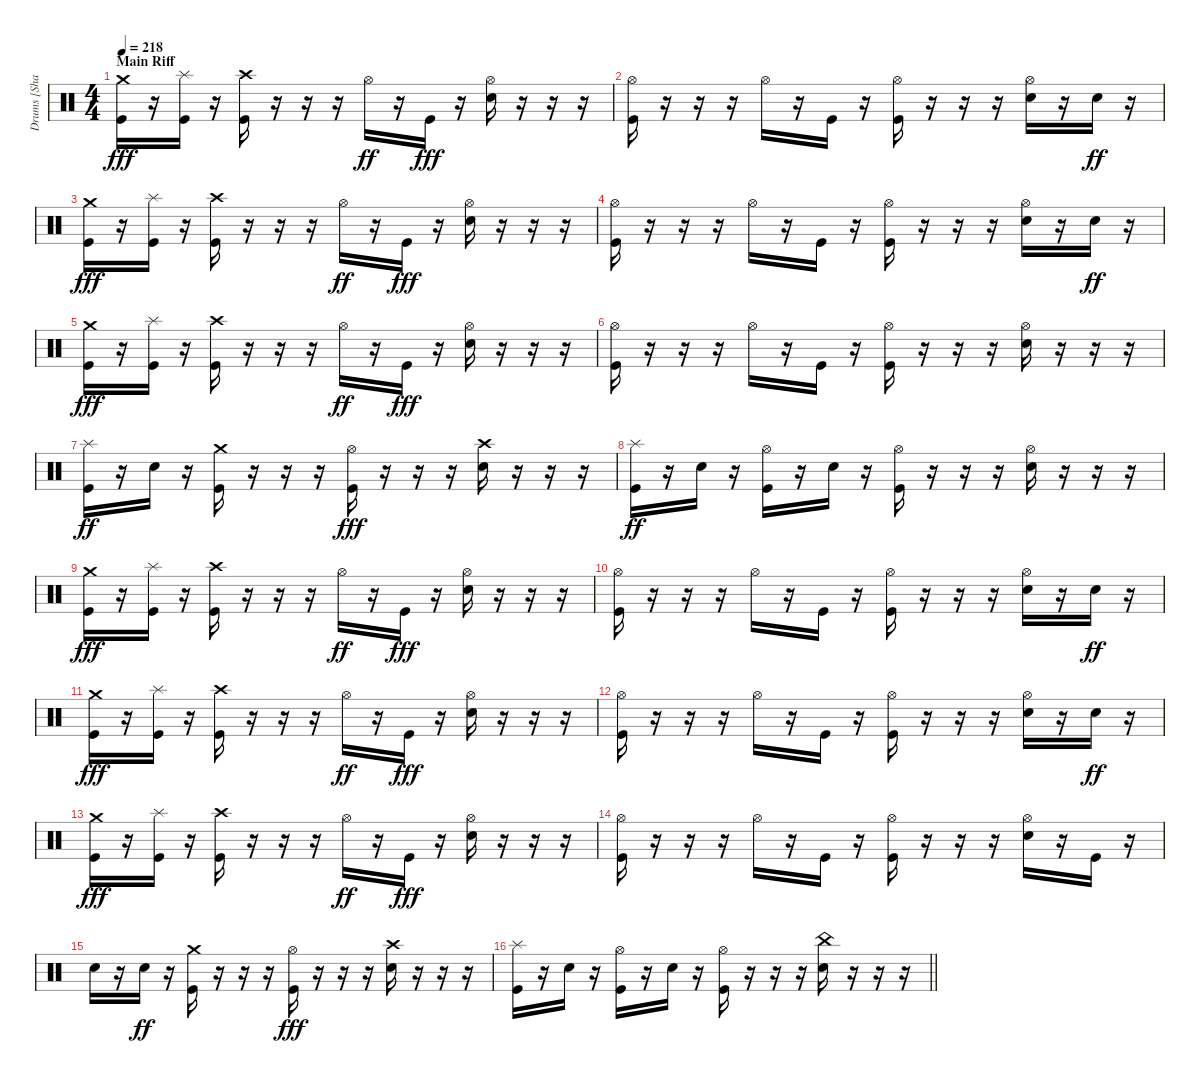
\track ("Drums [Shannon Larkin]" "Drums [Sha") {instrument percussion}
\staff {score}
\articulation defaults
\ts (4 4)
\section ("" "Main Riff")
\tempo 218
\clef neutral
\ks c
("Crash medium (hit)" "Kick (hit)").16{dy fff volume 15} r.16 ("Splash (hit)" "Kick (hit)").16 r.16 ("Crash high (hit)" "Kick (hit)").16 r.16 r.16 r.16 "Hi-Hat (open)".16{dy ff} r.16 "Kick (hit)".16{dy fff} r.16 ("Hi-Hat (open)" "Electric Snare (hit)").16 r.16 r.16 r.16 |
("Hi-Hat (open)" "Kick (hit)").16 r.16 r.16 r.16 "Hi-Hat (open)".16 r.16 "Kick (hit)".16 r.16 ("Hi-Hat (open)" "Kick (hit)").16 r.16 r.16 r.16 ("Hi-Hat (open)" "Electric Snare (hit)").16 r.16 "Electric Snare (hit)".16{dy ff} r.16 |
("Crash medium (hit)" "Kick (hit)").16{dy fff} r.16 ("Splash (hit)" "Kick (hit)").16 r.16 ("Crash high (hit)" "Kick (hit)").16 r.16 r.16 r.16 "Hi-Hat (open)".16{dy ff} r.16 "Kick (hit)".16{dy fff} r.16 ("Hi-Hat (open)" "Electric Snare (hit)").16 r.16 r.16 r.16 |
("Hi-Hat (open)" "Kick (hit)").16 r.16 r.16 r.16 "Hi-Hat (open)".16 r.16 "Kick (hit)".16 r.16 ("Hi-Hat (open)" "Kick (hit)").16 r.16 r.16 r.16 ("Hi-Hat (open)" "Electric Snare (hit)").16 r.16 "Electric Snare (hit)".16{dy ff} r.16 |
("Crash medium (hit)" "Kick (hit)").16{dy fff} r.16 ("Splash (hit)" "Kick (hit)").16 r.16 ("Crash high (hit)" "Kick (hit)").16 r.16 r.16 r.16 "Hi-Hat (open)".16{dy ff} r.16 "Kick (hit)".16{dy fff} r.16 ("Hi-Hat (open)" "Electric Snare (hit)").16 r.16 r.16 r.16 |
("Hi-Hat (open)" "Kick (hit)").16 r.16 r.16 r.16 "Hi-Hat (open)".16 r.16 "Kick (hit)".16 r.16 ("Hi-Hat (open)" "Kick (hit)").16 r.16 r.16 r.16 ("Hi-Hat (open)" "Electric Snare (hit)").16 r.16 r.16 r.16 |
("Splash (hit)" "Kick (hit)").16{dy ff} r.16 "Electric Snare (hit)".16 r.16 ("Crash medium (hit)" "Kick (hit)").16 r.16 r.16 r.16 ("Hi-Hat (open)" "Kick (hit)").16{dy fff} r.16 r.16 r.16 ("Crash high (hit)" "Electric Snare (hit)").16 r.16 r.16 r.16 |
("Splash (hit)" "Kick (hit)").16{dy ff} r.16 "Electric Snare (hit)".16 r.16 ("Hi-Hat (open)" "Kick (hit)").16 r.16 "Electric Snare (hit)".16 r.16 ("Hi-Hat (open)" "Kick (hit)").16 r.16 r.16 r.16 ("Hi-Hat (open)" "Electric Snare (hit)").16 r.16 r.16 r.16 |
("Crash medium (hit)" "Kick (hit)").16{dy fff} r.16 ("Splash (hit)" "Kick (hit)").16 r.16 ("Crash high (hit)" "Kick (hit)").16 r.16 r.16 r.16 "Hi-Hat (open)".16{dy ff} r.16 "Kick (hit)".16{dy fff} r.16 ("Hi-Hat (open)" "Electric Snare (hit)").16 r.16 r.16 r.16 |
("Hi-Hat (open)" "Kick (hit)").16 r.16 r.16 r.16 "Hi-Hat (open)".16 r.16 "Kick (hit)".16 r.16 ("Hi-Hat (open)" "Kick (hit)").16 r.16 r.16 r.16 ("Hi-Hat (open)" "Electric Snare (hit)").16 r.16 "Electric Snare (hit)".16{dy ff} r.16 |
("Crash medium (hit)" "Kick (hit)").16{dy fff} r.16 ("Splash (hit)" "Kick (hit)").16 r.16 ("Crash high (hit)" "Kick (hit)").16 r.16 r.16 r.16 "Hi-Hat (open)".16{dy ff} r.16 "Kick (hit)".16{dy fff} r.16 ("Hi-Hat (open)" "Electric Snare (hit)").16 r.16 r.16 r.16 |
("Hi-Hat (open)" "Kick (hit)").16 r.16 r.16 r.16 "Hi-Hat (open)".16 r.16 "Kick (hit)".16 r.16 ("Hi-Hat (open)" "Kick (hit)").16 r.16 r.16 r.16 ("Hi-Hat (open)" "Electric Snare (hit)").16 r.16 "Electric Snare (hit)".16{dy ff} r.16 |
("Crash medium (hit)" "Kick (hit)").16{dy fff} r.16 ("Splash (hit)" "Kick (hit)").16 r.16 ("Crash high (hit)" "Kick (hit)").16 r.16 r.16 r.16 "Hi-Hat (open)".16{dy ff} r.16 "Kick (hit)".16{dy fff} r.16 ("Hi-Hat (open)" "Electric Snare (hit)").16 r.16 r.16 r.16 |
("Hi-Hat (open)" "Kick (hit)").16 r.16 r.16 r.16 "Hi-Hat (open)".16 r.16 "Kick (hit)".16 r.16 ("Hi-Hat (open)" "Kick (hit)").16 r.16 r.16 r.16 ("Hi-Hat (open)" "Electric Snare (hit)").16 r.16 "Kick (hit)".16 r.16 |
"Electric Snare (hit)".16 r.16 "Electric Snare (hit)".16{dy ff} r.16 ("Crash medium (hit)" "Kick (hit)").16 r.16 r.16 r.16 ("Hi-Hat (open)" "Kick (hit)").16{dy fff} r.16 r.16 r.16 ("Crash high (hit)" "Electric Snare (hit)").16 r.16 r.16 r.16 |
\barLineRight lightlight
("Splash (hit)" "Kick (hit)").16 r.16 "Electric Snare (hit)".16 r.16 ("Hi-Hat (open)" "Kick (hit)").16 r.16 "Electric Snare (hit)".16 r.16 ("Hi-Hat (open)" "Kick (hit)").16 r.16 r.16 r.16 ("China (hit)" "Electric Snare (hit)").16 r.16 r.16 r.16
